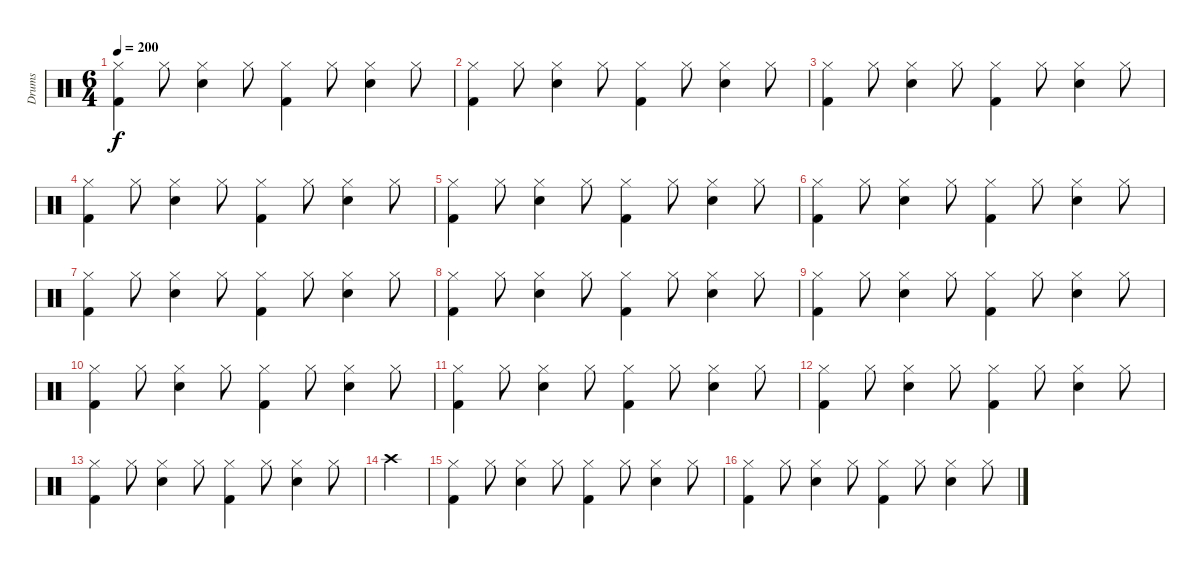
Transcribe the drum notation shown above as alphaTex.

\track ("Drums" "Drums") {instrument percussion}
\staff {score}
\articulation defaults
\ts (6 4)
\tempo 200
\clef neutral
\ks c
("Hi-Hat (closed)" "Kick (hit) 2").4{dy f} "Hi-Hat (closed)".8 ("Hi-Hat (closed)" "Snare (hit) 2").4 "Hi-Hat (closed)".8 ("Hi-Hat (closed)" "Kick (hit) 2").4 "Hi-Hat (closed)".8 ("Hi-Hat (closed)" "Snare (hit) 2").4 "Hi-Hat (closed)".8 |
("Hi-Hat (closed)" "Kick (hit) 2").4 "Hi-Hat (closed)".8 ("Hi-Hat (closed)" "Snare (hit) 2").4 "Hi-Hat (closed)".8 ("Hi-Hat (closed)" "Kick (hit) 2").4 "Hi-Hat (closed)".8 ("Hi-Hat (closed)" "Snare (hit) 2").4 "Hi-Hat (closed)".8 |
("Hi-Hat (closed)" "Kick (hit) 2").4 "Hi-Hat (closed)".8 ("Hi-Hat (closed)" "Snare (hit) 2").4 "Hi-Hat (closed)".8 ("Hi-Hat (closed)" "Kick (hit) 2").4 "Hi-Hat (closed)".8 ("Hi-Hat (closed)" "Snare (hit) 2").4 "Hi-Hat (closed)".8 |
("Hi-Hat (closed)" "Kick (hit) 2").4 "Hi-Hat (closed)".8 ("Hi-Hat (closed)" "Snare (hit) 2").4 "Hi-Hat (closed)".8 ("Hi-Hat (closed)" "Kick (hit) 2").4 "Hi-Hat (closed)".8 ("Hi-Hat (closed)" "Snare (hit) 2").4 "Hi-Hat (closed)".8 |
("Hi-Hat (closed)" "Kick (hit) 2").4 "Hi-Hat (closed)".8 ("Hi-Hat (closed)" "Snare (hit) 2").4 "Hi-Hat (closed)".8 ("Hi-Hat (closed)" "Kick (hit) 2").4 "Hi-Hat (closed)".8 ("Hi-Hat (closed)" "Snare (hit) 2").4 "Hi-Hat (closed)".8 |
("Hi-Hat (closed)" "Kick (hit) 2").4 "Hi-Hat (closed)".8 ("Hi-Hat (closed)" "Snare (hit) 2").4 "Hi-Hat (closed)".8 ("Hi-Hat (closed)" "Kick (hit) 2").4 "Hi-Hat (closed)".8 ("Hi-Hat (closed)" "Snare (hit) 2").4 "Hi-Hat (closed)".8 |
("Hi-Hat (closed)" "Kick (hit) 2").4 "Hi-Hat (closed)".8 ("Hi-Hat (closed)" "Snare (hit) 2").4 "Hi-Hat (closed)".8 ("Hi-Hat (closed)" "Kick (hit) 2").4 "Hi-Hat (closed)".8 ("Hi-Hat (closed)" "Snare (hit) 2").4 "Hi-Hat (closed)".8 |
("Hi-Hat (closed)" "Kick (hit) 2").4 "Hi-Hat (closed)".8 ("Hi-Hat (closed)" "Snare (hit) 2").4 "Hi-Hat (closed)".8 ("Hi-Hat (closed)" "Kick (hit) 2").4 "Hi-Hat (closed)".8 ("Hi-Hat (closed)" "Snare (hit) 2").4 "Hi-Hat (closed)".8 |
("Hi-Hat (closed)" "Kick (hit) 2").4 "Hi-Hat (closed)".8 ("Hi-Hat (closed)" "Snare (hit) 2").4 "Hi-Hat (closed)".8 ("Hi-Hat (closed)" "Kick (hit) 2").4 "Hi-Hat (closed)".8 ("Hi-Hat (closed)" "Snare (hit) 2").4 "Hi-Hat (closed)".8 |
("Hi-Hat (closed)" "Kick (hit) 2").4 "Hi-Hat (closed)".8 ("Hi-Hat (closed)" "Snare (hit) 2").4 "Hi-Hat (closed)".8 ("Hi-Hat (closed)" "Kick (hit) 2").4 "Hi-Hat (closed)".8 ("Hi-Hat (closed)" "Snare (hit) 2").4 "Hi-Hat (closed)".8 |
("Hi-Hat (closed)" "Kick (hit) 2").4 "Hi-Hat (closed)".8 ("Hi-Hat (closed)" "Snare (hit) 2").4 "Hi-Hat (closed)".8 ("Hi-Hat (closed)" "Kick (hit) 2").4 "Hi-Hat (closed)".8 ("Hi-Hat (closed)" "Snare (hit) 2").4 "Hi-Hat (closed)".8 |
("Hi-Hat (closed)" "Kick (hit) 2").4 "Hi-Hat (closed)".8 ("Hi-Hat (closed)" "Snare (hit) 2").4 "Hi-Hat (closed)".8 ("Hi-Hat (closed)" "Kick (hit) 2").4 "Hi-Hat (closed)".8 ("Hi-Hat (closed)" "Snare (hit) 2").4 "Hi-Hat (closed)".8 |
("Hi-Hat (closed)" "Kick (hit) 2").4 "Hi-Hat (closed)".8 ("Hi-Hat (closed)" "Snare (hit) 2").4 "Hi-Hat (closed)".8 ("Hi-Hat (closed)" "Kick (hit) 2").4 "Hi-Hat (closed)".8 ("Hi-Hat (closed)" "Snare (hit) 2").4 "Hi-Hat (closed)".8 |
"Crash high (hit)".4 |
("Hi-Hat (closed)" "Kick (hit) 2").4 "Hi-Hat (closed)".8 ("Hi-Hat (closed)" "Snare (hit) 2").4 "Hi-Hat (closed)".8 ("Hi-Hat (closed)" "Kick (hit) 2").4 "Hi-Hat (closed)".8 ("Hi-Hat (closed)" "Snare (hit) 2").4 "Hi-Hat (closed)".8 |
("Hi-Hat (closed)" "Kick (hit) 2").4 "Hi-Hat (closed)".8 ("Hi-Hat (closed)" "Snare (hit) 2").4 "Hi-Hat (closed)".8 ("Hi-Hat (closed)" "Kick (hit) 2").4 "Hi-Hat (closed)".8 ("Hi-Hat (closed)" "Snare (hit) 2").4 "Hi-Hat (closed)".8
